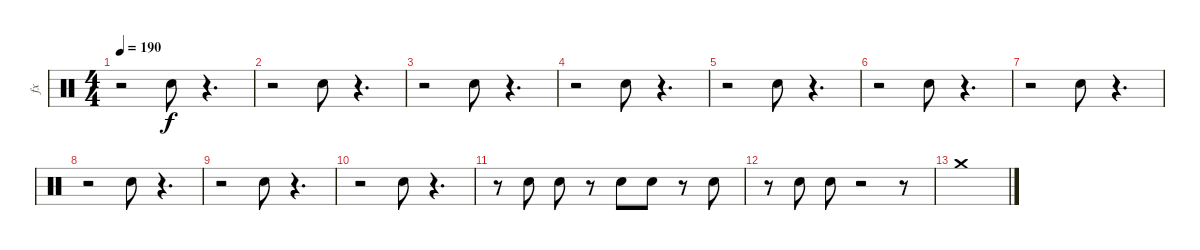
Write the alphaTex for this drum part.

\track ("fx" "fx") {instrument percussion}
\staff {score}
\articulation defaults
\ts (4 4)
\tempo 190
\clef neutral
\ks c
r.2{dy f} "Snare (hit) 2".8 r.4{d} |
r.2 "Snare (hit) 2".8 r.4{d} |
r.2 "Snare (hit) 2".8 r.4{d} |
r.2 "Snare (hit) 2".8 r.4{d} |
r.2 "Snare (hit) 2".8 r.4{d} |
r.2 "Snare (hit) 2".8 r.4{d} |
r.2 "Snare (hit) 2".8 r.4{d} |
r.2 "Snare (hit) 2".8 r.4{d} |
r.2 "Snare (hit) 2".8 r.4{d} |
r.2 "Snare (hit) 2".8 r.4{d} |
r.8 "Snare (hit) 2".8 "Snare (hit) 2".8 r.8 "Snare (hit) 2".8 "Snare (hit) 2".8 r.8 "Snare (hit) 2".8 |
r.8 "Snare (hit) 2".8 "Snare (hit) 2".8 r.2 r.8 |
"Crash medium (hit)".1
